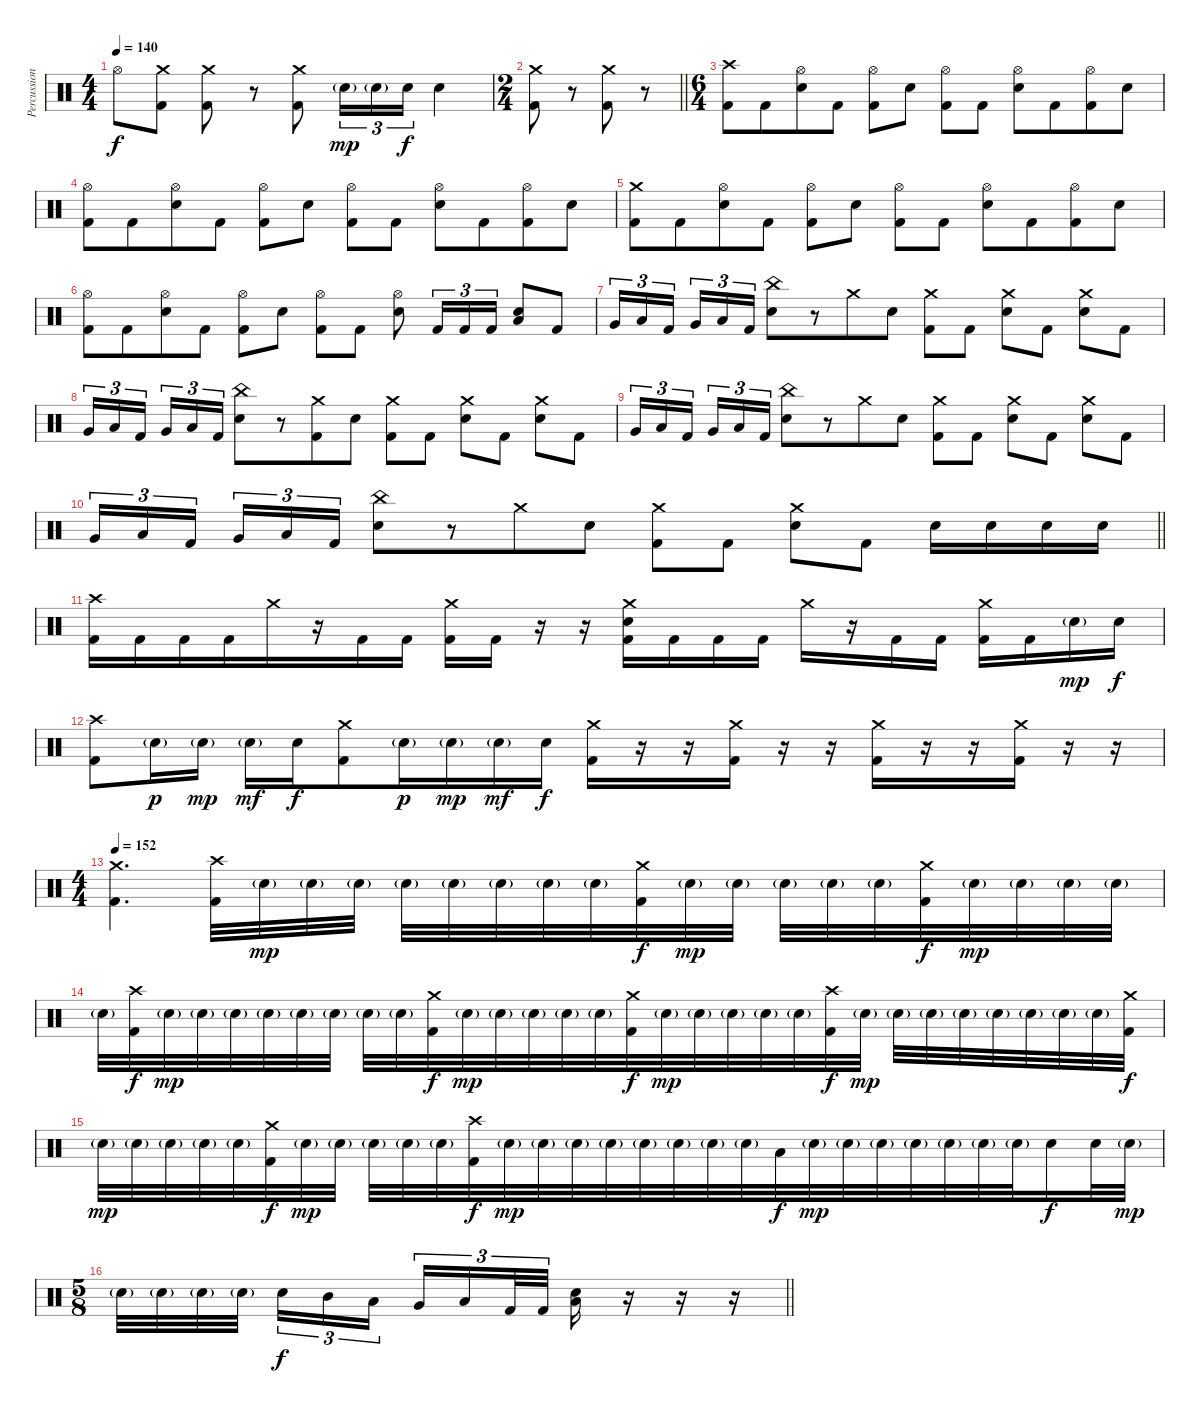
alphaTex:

\track ("Percussion" "Percussion") {instrument percussion}
\staff {score}
\articulation defaults
\ts (4 4)
\tempo 140
\clef neutral
\ks c "Hi-Hat (open)".8{dy f beam merge}
("Crash medium (hit)" "Kick (hit) 2").8 ("Crash medium (hit)" "Kick (hit) 2").8 r.8{beam merge} ("Crash medium (hit)" "Kick (hit) 2").8 "Electric Snare (hit)"{g}.16{tu (3 2) dy mp} "Electric Snare (hit)"{g}.16{tu (3 2)} "Electric Snare (hit)".16{tu (3 2) dy f} "Electric Snare (hit)".4 |
\ts (2 4)
\barLineRight lightlight
("Crash medium (hit)" "Kick (hit) 2").8 r.8{beam merge} ("Crash medium (hit)" "Kick (hit) 2").8 r.8 |
\ts (6 4)
\section ("" "")
("Crash high (hit)" "Kick (hit) 2").8 "Kick (hit) 2".8{beam merge} ("Hi-Hat (open)" "Electric Snare (hit)").8 "Kick (hit) 2".8 ("Hi-Hat (open)" "Kick (hit) 2").8 "Electric Snare (hit)".8 ("Hi-Hat (open)" "Kick (hit) 2").8 "Kick (hit) 2".8 ("Hi-Hat (open)" "Electric Snare (hit)").8{beam merge} "Kick (hit) 2".8{beam merge} ("Hi-Hat (open)" "Kick (hit) 2").8 "Electric Snare (hit)".8 |
("Hi-Hat (open)" "Kick (hit) 2").8 "Kick (hit) 2".8{beam merge} ("Hi-Hat (open)" "Electric Snare (hit)").8 "Kick (hit) 2".8 ("Hi-Hat (open)" "Kick (hit) 2").8 "Electric Snare (hit)".8 ("Hi-Hat (open)" "Kick (hit) 2").8 "Kick (hit) 2".8 ("Hi-Hat (open)" "Electric Snare (hit)").8{beam merge} "Kick (hit) 2".8{beam merge} ("Hi-Hat (open)" "Kick (hit) 2").8 "Electric Snare (hit)".8 |
("Crash medium (hit)" "Kick (hit) 2").8 "Kick (hit) 2".8{beam merge} ("Hi-Hat (open)" "Electric Snare (hit)").8 "Kick (hit) 2".8 ("Hi-Hat (open)" "Kick (hit) 2").8 "Electric Snare (hit)".8 ("Hi-Hat (open)" "Kick (hit) 2").8 "Kick (hit) 2".8 ("Hi-Hat (open)" "Electric Snare (hit)").8{beam merge} "Kick (hit) 2".8{beam merge} ("Hi-Hat (open)" "Kick (hit) 2").8 "Electric Snare (hit)".8 |
("Hi-Hat (open)" "Kick (hit) 2").8 "Kick (hit) 2".8{beam merge} ("Hi-Hat (open)" "Electric Snare (hit)").8 "Kick (hit) 2".8 ("Hi-Hat (open)" "Kick (hit) 2").8 "Electric Snare (hit)".8 ("Hi-Hat (open)" "Kick (hit) 2").8 "Kick (hit) 2".8 ("Hi-Hat (open)" "Electric Snare (hit)").8 "Kick (hit) 2".16{tu (3 2)} "Kick (hit) 2".16{tu (3 2) beam merge} "Kick (hit) 2".16{tu (3 2)} ("Electric Snare (hit)" "Low Floor Tom (hit)").8 "Kick (hit) 2".8 |
"Very Low Tom (hit)".16{tu (3 2)} "Low Floor Tom (hit)".16{tu (3 2)} "Kick (hit) 2".16{tu (3 2) beam splitsecondary} "Very Low Tom (hit)".16{tu (3 2)} "Low Floor Tom (hit)".16{tu (3 2)} "Kick (hit) 2".16{tu (3 2)} ("China (hit)" "Electric Snare (hit)").8{beam merge} r.8{beam merge} "Crash medium (hit)".8{beam merge} "Electric Snare (hit)".8 ("Crash medium (hit)" "Kick (hit) 2").8{beam merge} "Kick (hit) 2".8 ("Crash medium (hit)" "Electric Snare (hit)").8 "Kick (hit) 2".8 ("Crash medium (hit)" "Electric Snare (hit)").8 "Kick (hit) 2".8 |
"Very Low Tom (hit)".16{tu (3 2)} "Low Floor Tom (hit)".16{tu (3 2)} "Kick (hit) 2".16{tu (3 2) beam splitsecondary} "Very Low Tom (hit)".16{tu (3 2)} "Low Floor Tom (hit)".16{tu (3 2)} "Kick (hit) 2".16{tu (3 2)} ("China (hit)" "Electric Snare (hit)").8{beam merge} r.8{beam merge} ("Crash medium (hit)" "Kick (hit) 2").8{beam merge} "Electric Snare (hit)".8 ("Crash medium (hit)" "Kick (hit) 2").8{beam merge} "Kick (hit) 2".8 ("Crash medium (hit)" "Electric Snare (hit)").8 "Kick (hit) 2".8 ("Crash medium (hit)" "Electric Snare (hit)").8 "Kick (hit) 2".8 |
"Very Low Tom (hit)".16{tu (3 2)} "Low Floor Tom (hit)".16{tu (3 2)} "Kick (hit) 2".16{tu (3 2) beam splitsecondary} "Very Low Tom (hit)".16{tu (3 2)} "Low Floor Tom (hit)".16{tu (3 2)} "Kick (hit) 2".16{tu (3 2)} ("China (hit)" "Electric Snare (hit)").8{beam merge} r.8{beam merge} "Crash medium (hit)".8{beam merge} "Electric Snare (hit)".8 ("Crash medium (hit)" "Kick (hit) 2").8{beam merge} "Kick (hit) 2".8 ("Crash medium (hit)" "Electric Snare (hit)").8 "Kick (hit) 2".8 ("Crash medium (hit)" "Electric Snare (hit)").8 "Kick (hit) 2".8 |
\barLineRight lightlight "Very Low Tom (hit)".16{tu (3 2)} "Low Floor Tom (hit)".16{tu (3 2)} "Kick (hit) 2".16{tu (3 2) beam splitsecondary} "Very Low Tom (hit)".16{tu (3 2)} "Low Floor Tom (hit)".16{tu (3 2)} "Kick (hit) 2".16{tu (3 2)}
("China (hit)" "Electric Snare (hit)").8{beam merge} r.8{beam merge} "Crash medium (hit)".8{beam merge} "Electric Snare (hit)".8 ("Crash medium (hit)" "Kick (hit) 2").8{beam merge} "Kick (hit) 2".8 ("Crash medium (hit)" "Electric Snare (hit)").8 "Kick (hit) 2".8 "Electric Snare (hit)".16 "Electric Snare (hit)".16{beam merge} "Electric Snare (hit)".16{beam merge} "Electric Snare (hit)".16 |
\section ("" "")
("Crash high (hit)" "Kick (hit) 2").16 "Kick (hit) 2".16{beam merge} "Kick (hit) 2".16 "Kick (hit) 2".16{beam merge} "Crash medium (hit)".16 r.16{beam merge} "Kick (hit) 2".16{beam merge} "Kick (hit) 2".16 ("Crash medium (hit)" "Kick (hit) 2").16 "Kick (hit) 2".16 r.16 r.16{beam merge} ("Crash medium (hit)" "Electric Snare (hit)" "Kick (hit) 2").16{beam merge} "Kick (hit) 2".16{beam merge} "Kick (hit) 2".16 "Kick (hit) 2".16 "Crash medium (hit)".16 r.16{beam merge} "Kick (hit) 2".16 "Kick (hit) 2".16 ("Crash medium (hit)" "Kick (hit) 2").16 "Kick (hit) 2".16 "Electric Snare (hit)"{g}.16{dy mp} "Electric Snare (hit)".16{dy f} |
("Crash high (hit)" "Kick (hit) 2").8{beam merge} "Electric Snare (hit)"{g}.16{dy p beam merge} "Electric Snare (hit)"{g}.16{dy mp} "Electric Snare (hit)"{g}.16{dy mf} "Electric Snare (hit)".16{dy f} ("Crash medium (hit)" "Kick (hit) 2").8{beam merge} "Electric Snare (hit)"{g}.16{dy p beam merge} "Electric Snare (hit)"{g}.16{dy mp} "Electric Snare (hit)"{g}.16{dy mf} "Electric Snare (hit)".16{dy f} ("Crash medium (hit)" "Kick (hit) 2").16 r.16 r.16 ("Crash medium (hit)" "Kick (hit) 2").16 r.16 r.16{beam merge} ("Crash medium (hit)" "Kick (hit) 2").16{beam merge} r.16{beam merge} r.16 ("Crash medium (hit)" "Kick (hit) 2").16{beam merge} r.16 r.16 |
\ts (4 4)
\tempo 152
("Crash medium (hit)" "Kick (hit) 2").4{d} ("Crash high (hit)" "Kick (hit) 2").32 "Electric Snare (hit)"{g}.32{dy mp} "Electric Snare (hit)"{g}.32 "Electric Snare (hit)"{g}.32 "Electric Snare (hit)"{g}.32{beam merge} "Electric Snare (hit)"{g}.32 "Electric Snare (hit)"{g}.32 "Electric Snare (hit)"{g}.32{beam merge} "Electric Snare (hit)"{g}.32{beam merge} ("Crash medium (hit)" "Kick (hit) 2").32{dy f} "Electric Snare (hit)"{g}.32{dy mp} "Electric Snare (hit)"{g}.32 "Electric Snare (hit)"{g}.32{beam merge} "Electric Snare (hit)"{g}.32 "Electric Snare (hit)"{g}.32{beam merge} ("Crash medium (hit)" "Kick (hit) 2").32{dy f} "Electric Snare (hit)"{g}.32{dy mp} "Electric Snare (hit)"{g}.32 "Electric Snare (hit)"{g}.32{beam merge} "Electric Snare (hit)"{g}.32 |
"Electric Snare (hit)"{g}.32{beam merge} ("Crash high (hit)" "Kick (hit) 2").32{dy f} "Electric Snare (hit)"{g}.32{dy mp} "Electric Snare (hit)"{g}.32 "Electric Snare (hit)"{g}.32 "Electric Snare (hit)"{g}.32{beam merge} "Electric Snare (hit)"{g}.32 "Electric Snare (hit)"{g}.32 "Electric Snare (hit)"{g}.32 "Electric Snare (hit)"{g}.32{beam merge} ("Crash medium (hit)" "Kick (hit) 2").32{dy f} "Electric Snare (hit)"{g}.32{dy mp} "Electric Snare (hit)"{g}.32{beam merge} "Electric Snare (hit)"{g}.32{beam merge} "Electric Snare (hit)"{g}.32 "Electric Snare (hit)"{g}.32{beam merge} ("Crash medium (hit)" "Kick (hit) 2").32{dy f} "Electric Snare (hit)"{g}.32{dy mp} "Electric Snare (hit)"{g}.32 "Electric Snare (hit)"{g}.32{beam merge} "Electric Snare (hit)"{g}.32 "Electric Snare (hit)"{g}.32 ("Crash high (hit)" "Kick (hit) 2").32{dy f} "Electric Snare (hit)"{g}.32{dy mp} "Electric Snare (hit)"{g}.32 "Electric Snare (hit)"{g}.32 "Electric Snare (hit)"{g}.32{beam merge} "Electric Snare (hit)"{g}.32 "Electric Snare (hit)"{g}.32 "Electric Snare (hit)"{g}.32{beam merge} "Electric Snare (hit)"{g}.32{beam merge} ("Crash medium (hit)" "Kick (hit) 2").32{dy f} |
"Electric Snare (hit)"{g}.32{dy mp} "Electric Snare (hit)"{g}.32{beam merge} "Electric Snare (hit)"{g}.32 "Electric Snare (hit)"{g}.32 "Electric Snare (hit)"{g}.32{beam merge} ("Crash medium (hit)" "Kick (hit) 2").32{dy f} "Electric Snare (hit)"{g}.32{dy mp} "Electric Snare (hit)"{g}.32 "Electric Snare (hit)"{g}.32 "Electric Snare (hit)"{g}.32 "Electric Snare (hit)"{g}.32 ("Crash high (hit)" "Kick (hit) 2").32{dy f} "Electric Snare (hit)"{g}.32{dy mp} "Electric Snare (hit)"{g}.32 "Electric Snare (hit)"{g}.32 "Electric Snare (hit)"{g}.32{beam merge} "Electric Snare (hit)"{g}.32 "Electric Snare (hit)"{g}.32 "Electric Snare (hit)"{g}.32 "Electric Snare (hit)"{g}.32 "Low Tom (hit)".32{dy f} "Electric Snare (hit)"{g}.32{dy mp beam merge} "Electric Snare (hit)"{g}.32{beam merge} "Electric Snare (hit)"{g}.32{beam merge} "Electric Snare (hit)"{g}.32{beam merge} "Electric Snare (hit)"{g}.32{beam merge} "Electric Snare (hit)"{g}.32{beam merge} "Electric Snare (hit)"{g}.32 "Electric Snare (hit)".16{dy f} "Electric Snare (hit)".32 "Electric Snare (hit)"{g}.32{dy mp} |
\ts (5 8)
\barLineRight lightlight "Electric Snare (hit)"{g}.32{beam merge} "Electric Snare (hit)"{g}.32 "Electric Snare (hit)"{g}.32{beam merge} "Electric Snare (hit)"{g}.32 "Electric Snare (hit)".16{tu (3 2) dy f} "Mid Tom (hit)".16{tu (3 2)} "Low Tom (hit)".16{tu (3 2)} "Very Low Tom (hit)".16{tu (3 2)} "Low Floor Tom (hit)".16{tu (3 2)} "Kick (hit) 2".32{tu (3 2) beam merge} "Kick (hit) 2".32{tu (3 2)}
("Electric Snare (hit)" "Low Floor Tom (hit)").16 r.16 r.16 r.16
